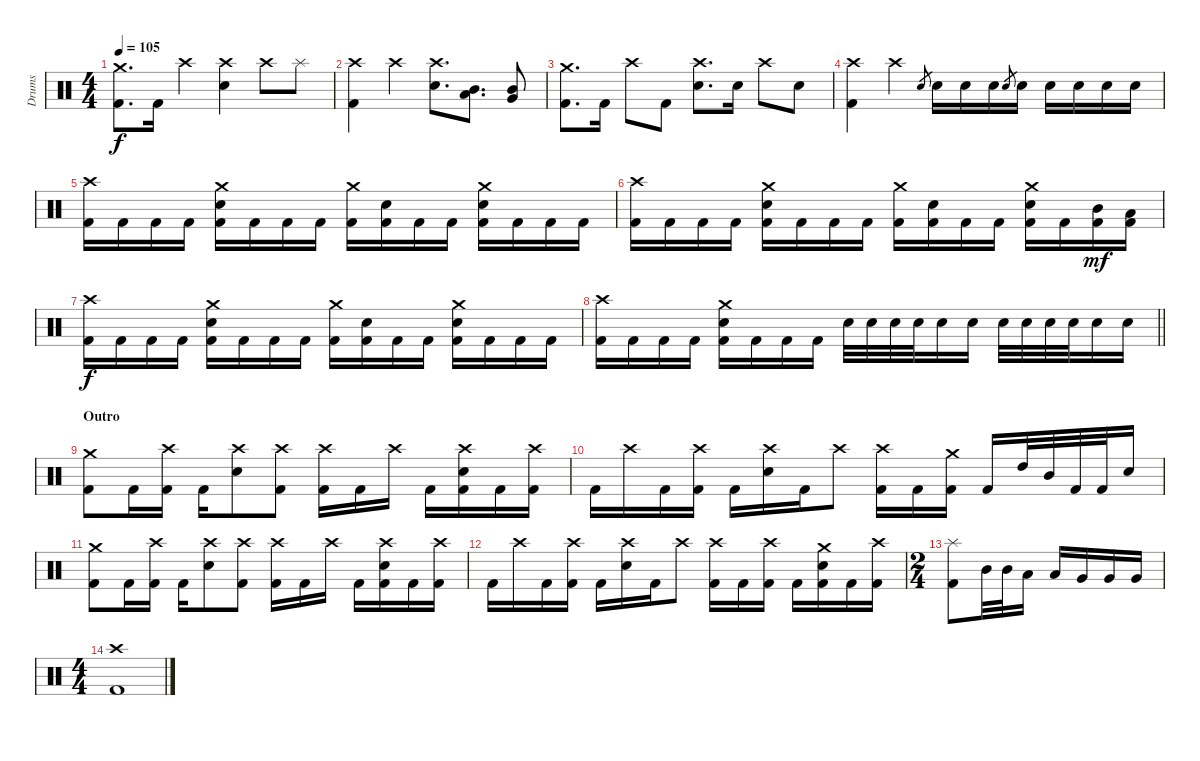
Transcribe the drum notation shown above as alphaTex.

\track ("Drums" "Drums") {instrument percussion}
\staff {score}
\articulation defaults
\ts (4 4)
\tempo 105
\clef neutral
\ks c
("Crash medium (hit)" "Kick (hit) 2").8{d dy f} "Kick (hit) 2".16 "Crash high (hit)".4 ("Crash high (hit)" "Electric Snare (hit)").4 "Crash high (hit)".8 "Splash (hit)".8 |
("Crash high (hit)" "Kick (hit) 2").4 "Crash high (hit)".4 ("Crash high (hit)" "Electric Snare (hit)").8{d} ("Mid Tom (hit)" "Low Tom (hit)").8{d} ("Mid Tom (hit)" "Very Low Tom (hit)").8 |
("Crash medium (hit)" "Kick (hit) 2").8{d} "Kick (hit) 2".16 "Crash high (hit)".8 "Kick (hit) 2".8 ("Crash high (hit)" "Electric Snare (hit)").8{d} "Electric Snare (hit)".16 "Crash high (hit)".8 "Electric Snare (hit)".8 |
("Crash high (hit)" "Kick (hit) 2").4 "Crash high (hit)".4 "Electric Snare (hit)".8{gr} "Electric Snare (hit)".16 "Electric Snare (hit)".16 "Electric Snare (hit)".16 "Electric Snare (hit)".8{gr} "Electric Snare (hit)".16 "Electric Snare (hit)".16 "Electric Snare (hit)".16 "Electric Snare (hit)".16 "Electric Snare (hit)".16 |
("Crash high (hit)" "Kick (hit) 2").16 "Kick (hit) 2".16 "Kick (hit) 2".16 "Kick (hit) 2".16 ("Crash medium (hit)" "Electric Snare (hit)" "Kick (hit) 2").16 "Kick (hit) 2".16 "Kick (hit) 2".16 "Kick (hit) 2".16 ("Crash medium (hit)" "Kick (hit) 2").16 ("Electric Snare (hit)" "Kick (hit) 2").16 "Kick (hit) 2".16 "Kick (hit) 2".16 ("Crash medium (hit)" "Electric Snare (hit)" "Kick (hit) 2").16 "Kick (hit) 2".16 "Kick (hit) 2".16 "Kick (hit) 2".16 |
("Crash high (hit)" "Kick (hit) 2").16 "Kick (hit) 2".16 "Kick (hit) 2".16 "Kick (hit) 2".16 ("Crash medium (hit)" "Electric Snare (hit)" "Kick (hit) 2").16 "Kick (hit) 2".16 "Kick (hit) 2".16 "Kick (hit) 2".16 ("Crash medium (hit)" "Kick (hit) 2").16 ("Electric Snare (hit)" "Kick (hit) 2").16 "Kick (hit) 2".16 "Kick (hit) 2".16 ("Crash medium (hit)" "Electric Snare (hit)" "Kick (hit) 2").16 "Kick (hit) 2".16 ("Mid Tom (hit)" "Kick (hit) 2").16{dy mf} ("Low Tom (hit)" "Kick (hit) 2").16 |
("Crash high (hit)" "Kick (hit) 2").16{dy f} "Kick (hit) 2".16 "Kick (hit) 2".16 "Kick (hit) 2".16 ("Crash medium (hit)" "Electric Snare (hit)" "Kick (hit) 2").16 "Kick (hit) 2".16 "Kick (hit) 2".16 "Kick (hit) 2".16 ("Crash medium (hit)" "Kick (hit) 2").16 ("Electric Snare (hit)" "Kick (hit) 2").16 "Kick (hit) 2".16 "Kick (hit) 2".16 ("Crash medium (hit)" "Electric Snare (hit)" "Kick (hit) 2").16 "Kick (hit) 2".16 "Kick (hit) 2".16 "Kick (hit) 2".16 |
\barLineRight lightlight
("Crash high (hit)" "Kick (hit) 2").16 "Kick (hit) 2".16 "Kick (hit) 2".16 "Kick (hit) 2".16 ("Crash medium (hit)" "Electric Snare (hit)" "Kick (hit) 2").16 "Kick (hit) 2".16 "Kick (hit) 2".16 "Kick (hit) 2".16 "Electric Snare (hit)".32 "Electric Snare (hit)".32 "Electric Snare (hit)".32 "Electric Snare (hit)".32 "Electric Snare (hit)".16 "Electric Snare (hit)".16 "Electric Snare (hit)".32 "Electric Snare (hit)".32 "Electric Snare (hit)".32 "Electric Snare (hit)".32 "Electric Snare (hit)".16 "Electric Snare (hit)".16 |
\section ("" "Outro")
("Crash medium (hit)" "Kick (hit) 2").8 "Kick (hit) 2".16 ("Crash high (hit)" "Kick (hit) 2").16 "Kick (hit) 2".16 ("Crash high (hit)" "Electric Snare (hit)").8 ("Crash high (hit)" "Kick (hit) 2").8 ("Crash high (hit)" "Kick (hit) 2").16 "Kick (hit) 2".16 "Crash high (hit)".16 "Kick (hit) 2".16 ("Crash high (hit)" "Electric Snare (hit)" "Kick (hit) 2").16 "Kick (hit) 2".16 ("Crash high (hit)" "Kick (hit) 2").16 |
"Kick (hit) 2".16 "Crash high (hit)".16 "Kick (hit) 2".16 ("Crash high (hit)" "Kick (hit) 2").16 "Kick (hit) 2".16 ("Crash high (hit)" "Electric Snare (hit)").16 "Kick (hit) 2".16 "Crash high (hit)".8 ("Crash high (hit)" "Kick (hit) 2").16 "Kick (hit) 2".16 ("Crash medium (hit)" "Kick (hit) 2").16 "Kick (hit) 2".16 "High Tom (hit)".32 "Mid Tom (hit)".32 "Kick (hit) 2".32 "Kick (hit) 2".32 "Electric Snare (hit)".16 |
("Crash medium (hit)" "Kick (hit) 2").8 "Kick (hit) 2".16 ("Crash high (hit)" "Kick (hit) 2").16 "Kick (hit) 2".16 ("Crash high (hit)" "Electric Snare (hit)").8 ("Crash high (hit)" "Kick (hit) 2").8 ("Crash high (hit)" "Kick (hit) 2").16 "Kick (hit) 2".16 "Crash high (hit)".16 "Kick (hit) 2".16 ("Crash high (hit)" "Electric Snare (hit)" "Kick (hit) 2").16 "Kick (hit) 2".16 ("Crash high (hit)" "Kick (hit) 2").16 |
"Kick (hit) 2".16 "Crash high (hit)".16 "Kick (hit) 2".16 ("Crash high (hit)" "Kick (hit) 2").16 "Kick (hit) 2".16 ("Crash high (hit)" "Electric Snare (hit)").16 "Kick (hit) 2".16 "Crash high (hit)".8 ("Crash high (hit)" "Kick (hit) 2").16 "Kick (hit) 2".16 ("Crash high (hit)" "Kick (hit) 2").16 "Kick (hit) 2".16 ("Crash medium (hit)" "Electric Snare (hit)" "Kick (hit) 2").16 "Kick (hit) 2".16 ("Crash high (hit)" "Kick (hit) 2").16 |
\ts (2 4)
("Splash (hit)" "Kick (hit) 2").8 "Mid Tom (hit)".32 "Mid Tom (hit)".32 "Low Tom (hit)".16 "Low Tom (hit)".16 "Very Low Tom (hit)".16 "Very Low Tom (hit)".16 "Very Low Tom (hit)".16 |
\ts (4 4)
("Crash high (hit)" "Kick (hit) 2").1
